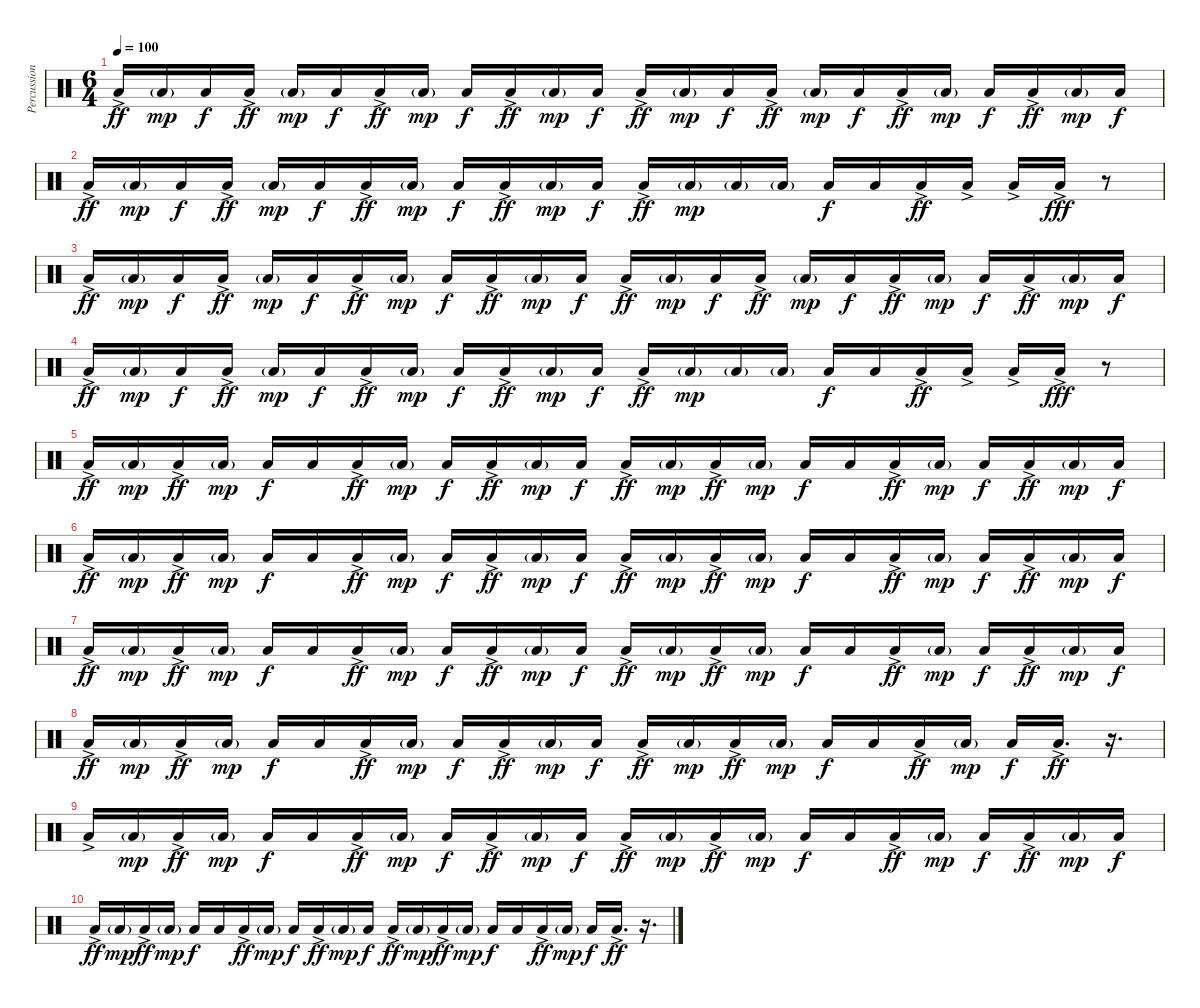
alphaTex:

\track ("Percussions" "Percussion") {instrument percussion}
\staff {score}
\articulation defaults
\ts (6 4)
\tempo 100
\clef neutral
\ks c "Low Floor Tom (hit)"{ac}.16{dy ff} "Low Floor Tom (hit)"{g}.16{dy mp} "Low Floor Tom (hit)".16{dy f} "Low Floor Tom (hit)"{ac}.16{dy ff} "Low Floor Tom (hit)"{g}.16{dy mp} "Low Floor Tom (hit)".16{dy f} "Low Floor Tom (hit)"{ac}.16{dy ff} "Low Floor Tom (hit)"{g}.16{dy mp} "Low Floor Tom (hit)".16{dy f} "Low Floor Tom (hit)"{ac}.16{dy ff} "Low Floor Tom (hit)"{g}.16{dy mp} "Low Floor Tom (hit)".16{dy f} "Low Floor Tom (hit)"{ac}.16{dy ff} "Low Floor Tom (hit)"{g}.16{dy mp} "Low Floor Tom (hit)".16{dy f} "Low Floor Tom (hit)"{ac}.16{dy ff} "Low Floor Tom (hit)"{g}.16{dy mp} "Low Floor Tom (hit)".16{dy f} "Low Floor Tom (hit)"{ac}.16{dy ff} "Low Floor Tom (hit)"{g}.16{dy mp} "Low Floor Tom (hit)".16{dy f} "Low Floor Tom (hit)"{ac}.16{dy ff} "Low Floor Tom (hit)"{g}.16{dy mp} "Low Floor Tom (hit)".16{dy f}
|
"Low Floor Tom (hit)"{ac}.16{dy ff} "Low Floor Tom (hit)"{g}.16{dy mp} "Low Floor Tom (hit)".16{dy f} "Low Floor Tom (hit)"{ac}.16{dy ff} "Low Floor Tom (hit)"{g}.16{dy mp} "Low Floor Tom (hit)".16{dy f} "Low Floor Tom (hit)"{ac}.16{dy ff} "Low Floor Tom (hit)"{g}.16{dy mp} "Low Floor Tom (hit)".16{dy f} "Low Floor Tom (hit)"{ac}.16{dy ff} "Low Floor Tom (hit)"{g}.16{dy mp} "Low Floor Tom (hit)".16{dy f} "Low Floor Tom (hit)"{ac}.16{dy ff} "Low Floor Tom (hit)"{g}.16{dy mp} "Low Floor Tom (hit)"{g}.16 "Low Floor Tom (hit)"{g}.16 "Low Floor Tom (hit)".16{dy f} "Low Floor Tom (hit)".16 "Low Floor Tom (hit)"{ac}.16{dy ff} "Low Floor Tom (hit)"{ac}.16 "Low Floor Tom (hit)"{ac}.16 "Low Floor Tom (hit)"{ac}.16{dy fff} r.8 |
"Low Floor Tom (hit)"{ac}.16{dy ff} "Low Floor Tom (hit)"{g}.16{dy mp} "Low Floor Tom (hit)".16{dy f} "Low Floor Tom (hit)"{ac}.16{dy ff} "Low Floor Tom (hit)"{g}.16{dy mp} "Low Floor Tom (hit)".16{dy f} "Low Floor Tom (hit)"{ac}.16{dy ff} "Low Floor Tom (hit)"{g}.16{dy mp} "Low Floor Tom (hit)".16{dy f} "Low Floor Tom (hit)"{ac}.16{dy ff} "Low Floor Tom (hit)"{g}.16{dy mp} "Low Floor Tom (hit)".16{dy f} "Low Floor Tom (hit)"{ac}.16{dy ff} "Low Floor Tom (hit)"{g}.16{dy mp} "Low Floor Tom (hit)".16{dy f} "Low Floor Tom (hit)"{ac}.16{dy ff} "Low Floor Tom (hit)"{g}.16{dy mp} "Low Floor Tom (hit)".16{dy f} "Low Floor Tom (hit)"{ac}.16{dy ff} "Low Floor Tom (hit)"{g}.16{dy mp} "Low Floor Tom (hit)".16{dy f} "Low Floor Tom (hit)"{ac}.16{dy ff} "Low Floor Tom (hit)"{g}.16{dy mp} "Low Floor Tom (hit)".16{dy f} |
"Low Floor Tom (hit)"{ac}.16{dy ff} "Low Floor Tom (hit)"{g}.16{dy mp} "Low Floor Tom (hit)".16{dy f} "Low Floor Tom (hit)"{ac}.16{dy ff} "Low Floor Tom (hit)"{g}.16{dy mp} "Low Floor Tom (hit)".16{dy f} "Low Floor Tom (hit)"{ac}.16{dy ff} "Low Floor Tom (hit)"{g}.16{dy mp} "Low Floor Tom (hit)".16{dy f} "Low Floor Tom (hit)"{ac}.16{dy ff} "Low Floor Tom (hit)"{g}.16{dy mp} "Low Floor Tom (hit)".16{dy f} "Low Floor Tom (hit)"{ac}.16{dy ff} "Low Floor Tom (hit)"{g}.16{dy mp} "Low Floor Tom (hit)"{g}.16 "Low Floor Tom (hit)"{g}.16 "Low Floor Tom (hit)".16{dy f} "Low Floor Tom (hit)".16 "Low Floor Tom (hit)"{ac}.16{dy ff} "Low Floor Tom (hit)"{ac}.16 "Low Floor Tom (hit)"{ac}.16 "Low Floor Tom (hit)"{ac}.16{dy fff} r.8 |
"Low Floor Tom (hit)"{ac}.16{dy ff} "Low Floor Tom (hit)"{g}.16{dy mp} "Low Floor Tom (hit)"{ac}.16{dy ff} "Low Floor Tom (hit)"{g}.16{dy mp} "Low Floor Tom (hit)".16{dy f} "Low Floor Tom (hit)".16 "Low Floor Tom (hit)"{ac}.16{dy ff} "Low Floor Tom (hit)"{g}.16{dy mp} "Low Floor Tom (hit)".16{dy f} "Low Floor Tom (hit)"{ac}.16{dy ff} "Low Floor Tom (hit)"{g}.16{dy mp} "Low Floor Tom (hit)".16{dy f} "Low Floor Tom (hit)"{ac}.16{dy ff} "Low Floor Tom (hit)"{g}.16{dy mp} "Low Floor Tom (hit)"{ac}.16{dy ff} "Low Floor Tom (hit)"{g}.16{dy mp} "Low Floor Tom (hit)".16{dy f} "Low Floor Tom (hit)".16 "Low Floor Tom (hit)"{ac}.16{dy ff} "Low Floor Tom (hit)"{g}.16{dy mp} "Low Floor Tom (hit)".16{dy f} "Low Floor Tom (hit)"{ac}.16{dy ff} "Low Floor Tom (hit)"{g}.16{dy mp} "Low Floor Tom (hit)".16{dy f} |
"Low Floor Tom (hit)"{ac}.16{dy ff} "Low Floor Tom (hit)"{g}.16{dy mp} "Low Floor Tom (hit)"{ac}.16{dy ff} "Low Floor Tom (hit)"{g}.16{dy mp} "Low Floor Tom (hit)".16{dy f} "Low Floor Tom (hit)".16 "Low Floor Tom (hit)"{ac}.16{dy ff} "Low Floor Tom (hit)"{g}.16{dy mp} "Low Floor Tom (hit)".16{dy f} "Low Floor Tom (hit)"{ac}.16{dy ff} "Low Floor Tom (hit)"{g}.16{dy mp} "Low Floor Tom (hit)".16{dy f} "Low Floor Tom (hit)"{ac}.16{dy ff} "Low Floor Tom (hit)"{g}.16{dy mp} "Low Floor Tom (hit)"{ac}.16{dy ff} "Low Floor Tom (hit)"{g}.16{dy mp} "Low Floor Tom (hit)".16{dy f} "Low Floor Tom (hit)".16 "Low Floor Tom (hit)"{ac}.16{dy ff} "Low Floor Tom (hit)"{g}.16{dy mp} "Low Floor Tom (hit)".16{dy f} "Low Floor Tom (hit)"{ac}.16{dy ff} "Low Floor Tom (hit)"{g}.16{dy mp} "Low Floor Tom (hit)".16{dy f} |
"Low Floor Tom (hit)"{ac}.16{dy ff} "Low Floor Tom (hit)"{g}.16{dy mp} "Low Floor Tom (hit)"{ac}.16{dy ff} "Low Floor Tom (hit)"{g}.16{dy mp} "Low Floor Tom (hit)".16{dy f} "Low Floor Tom (hit)".16 "Low Floor Tom (hit)"{ac}.16{dy ff} "Low Floor Tom (hit)"{g}.16{dy mp} "Low Floor Tom (hit)".16{dy f} "Low Floor Tom (hit)"{ac}.16{dy ff} "Low Floor Tom (hit)"{g}.16{dy mp} "Low Floor Tom (hit)".16{dy f} "Low Floor Tom (hit)"{ac}.16{dy ff} "Low Floor Tom (hit)"{g}.16{dy mp} "Low Floor Tom (hit)"{ac}.16{dy ff} "Low Floor Tom (hit)"{g}.16{dy mp} "Low Floor Tom (hit)".16{dy f} "Low Floor Tom (hit)".16 "Low Floor Tom (hit)"{ac}.16{dy ff} "Low Floor Tom (hit)"{g}.16{dy mp} "Low Floor Tom (hit)".16{dy f} "Low Floor Tom (hit)"{ac}.16{dy ff} "Low Floor Tom (hit)"{g}.16{dy mp} "Low Floor Tom (hit)".16{dy f} |
"Low Floor Tom (hit)"{ac}.16{dy ff} "Low Floor Tom (hit)"{g}.16{dy mp} "Low Floor Tom (hit)"{ac}.16{dy ff} "Low Floor Tom (hit)"{g}.16{dy mp} "Low Floor Tom (hit)".16{dy f} "Low Floor Tom (hit)".16 "Low Floor Tom (hit)"{ac}.16{dy ff} "Low Floor Tom (hit)"{g}.16{dy mp} "Low Floor Tom (hit)".16{dy f} "Low Floor Tom (hit)"{ac}.16{dy ff} "Low Floor Tom (hit)"{g}.16{dy mp} "Low Floor Tom (hit)".16{dy f} "Low Floor Tom (hit)"{ac}.16{dy ff} "Low Floor Tom (hit)"{g}.16{dy mp} "Low Floor Tom (hit)"{ac}.16{dy ff} "Low Floor Tom (hit)"{g}.16{dy mp} "Low Floor Tom (hit)".16{dy f} "Low Floor Tom (hit)".16 "Low Floor Tom (hit)"{ac}.16{dy ff} "Low Floor Tom (hit)"{g}.16{dy mp} "Low Floor Tom (hit)".16{dy f} "Low Floor Tom (hit)"{ac}.16{d dy ff} r.16{d} |
"Low Floor Tom (hit)"{ac}.16 "Low Floor Tom (hit)"{g}.16{dy mp} "Low Floor Tom (hit)"{ac}.16{dy ff} "Low Floor Tom (hit)"{g}.16{dy mp} "Low Floor Tom (hit)".16{dy f} "Low Floor Tom (hit)".16 "Low Floor Tom (hit)"{ac}.16{dy ff} "Low Floor Tom (hit)"{g}.16{dy mp} "Low Floor Tom (hit)".16{dy f} "Low Floor Tom (hit)"{ac}.16{dy ff} "Low Floor Tom (hit)"{g}.16{dy mp} "Low Floor Tom (hit)".16{dy f} "Low Floor Tom (hit)"{ac}.16{dy ff} "Low Floor Tom (hit)"{g}.16{dy mp} "Low Floor Tom (hit)"{ac}.16{dy ff} "Low Floor Tom (hit)"{g}.16{dy mp} "Low Floor Tom (hit)".16{dy f} "Low Floor Tom (hit)".16 "Low Floor Tom (hit)"{ac}.16{dy ff} "Low Floor Tom (hit)"{g}.16{dy mp} "Low Floor Tom (hit)".16{dy f} "Low Floor Tom (hit)"{ac}.16{dy ff} "Low Floor Tom (hit)"{g}.16{dy mp} "Low Floor Tom (hit)".16{dy f} |
"Low Floor Tom (hit)"{ac}.16{dy ff} "Low Floor Tom (hit)"{g}.16{dy mp} "Low Floor Tom (hit)"{ac}.16{dy ff} "Low Floor Tom (hit)"{g}.16{dy mp} "Low Floor Tom (hit)".16{dy f} "Low Floor Tom (hit)".16 "Low Floor Tom (hit)"{ac}.16{dy ff} "Low Floor Tom (hit)"{g}.16{dy mp} "Low Floor Tom (hit)".16{dy f} "Low Floor Tom (hit)"{ac}.16{dy ff} "Low Floor Tom (hit)"{g}.16{dy mp} "Low Floor Tom (hit)".16{dy f} "Low Floor Tom (hit)"{ac}.16{dy ff} "Low Floor Tom (hit)"{g}.16{dy mp} "Low Floor Tom (hit)"{ac}.16{dy ff} "Low Floor Tom (hit)"{g}.16{dy mp} "Low Floor Tom (hit)".16{dy f} "Low Floor Tom (hit)".16 "Low Floor Tom (hit)"{ac}.16{dy ff} "Low Floor Tom (hit)"{g}.16{dy mp} "Low Floor Tom (hit)".16{dy f} "Low Floor Tom (hit)"{ac}.16{d dy ff} r.16{d}
